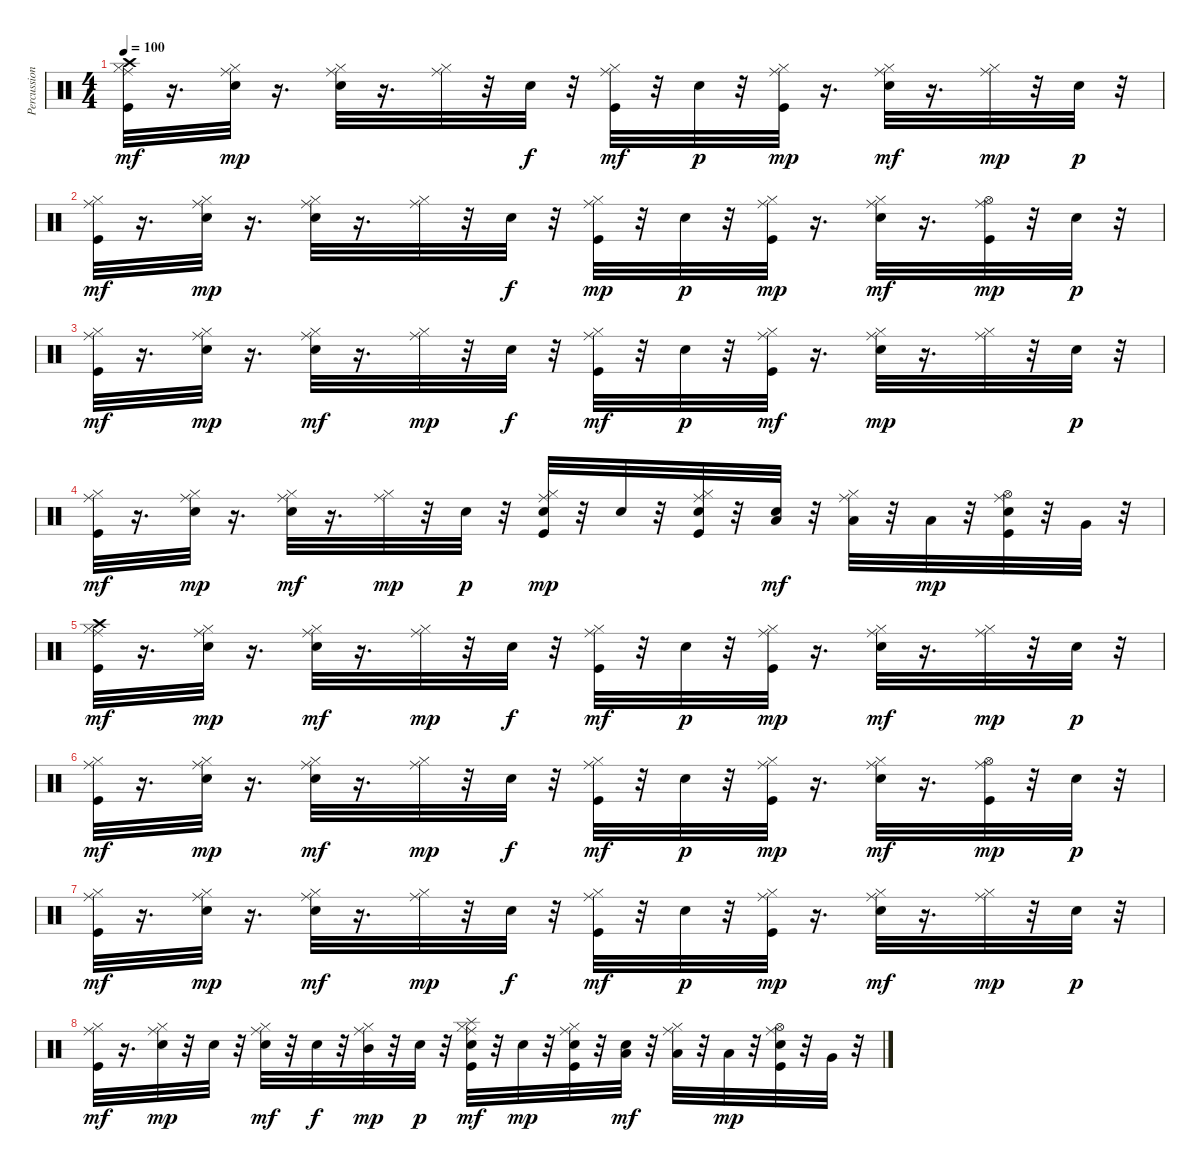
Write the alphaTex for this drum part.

\track ("Percussions" "Percussion") {instrument percussion}
\staff {score}
\articulation defaults
\ts (4 4)
\tempo 100
\clef neutral
\ks c
("Kick (hit)" "Hi-Hat (closed)" "Crash high (hit)" "Ride (middle)").32{dy mf} r.16{d} ("Electric Snare (hit)" "Hi-Hat (closed)" "Ride (middle)").32{dy mp} r.16{d} ("Electric Snare (hit)" "Hi-Hat (closed)" "Ride (middle)").32 r.16{d} ("Hi-Hat (closed)" "Ride (middle)").32 r.32 "Electric Snare (hit)".32{dy f} r.32 ("Kick (hit)" "Hi-Hat (closed)" "Ride (middle)").32{dy mf} r.32 "Electric Snare (hit)".32{dy p} r.32 ("Kick (hit)" "Hi-Hat (closed)" "Ride (middle)").32{dy mp} r.16{d} ("Electric Snare (hit)" "Hi-Hat (closed)" "Ride (middle)").32{dy mf} r.16{d} ("Hi-Hat (closed)" "Ride (middle)").32{dy mp} r.32 "Electric Snare (hit)".32{dy p} r.32 |
("Kick (hit)" "Hi-Hat (closed)" "Ride (middle)").32{dy mf} r.16{d} ("Electric Snare (hit)" "Hi-Hat (closed)" "Ride (middle)").32{dy mp} r.16{d} ("Electric Snare (hit)" "Hi-Hat (closed)" "Ride (middle)").32 r.16{d} ("Hi-Hat (closed)" "Ride (middle)").32 r.32 "Electric Snare (hit)".32{dy f} r.32 ("Kick (hit)" "Hi-Hat (closed)" "Ride (middle)").32{dy mp} r.32 "Electric Snare (hit)".32{dy p} r.32 ("Kick (hit)" "Hi-Hat (closed)" "Ride (middle)").32{dy mp} r.16{d} ("Electric Snare (hit)" "Hi-Hat (closed)" "Ride (middle)").32{dy mf} r.16{d} ("Kick (hit)" "Hi-Hat (open)" "Ride (middle)").32{dy mp} r.32 "Electric Snare (hit)".32{dy p} r.32 |
("Kick (hit)" "Hi-Hat (closed)" "Ride (middle)").32{dy mf} r.16{d} ("Electric Snare (hit)" "Hi-Hat (closed)" "Ride (middle)").32{dy mp} r.16{d} ("Electric Snare (hit)" "Hi-Hat (closed)" "Ride (middle)").32{dy mf} r.16{d} ("Hi-Hat (closed)" "Ride (middle)").32{dy mp} r.32 "Electric Snare (hit)".32{dy f} r.32 ("Kick (hit)" "Hi-Hat (closed)" "Ride (middle)").32{dy mf} r.32 "Electric Snare (hit)".32{dy p} r.32 ("Kick (hit)" "Hi-Hat (closed)" "Ride (middle)").32{dy mf} r.16{d} ("Electric Snare (hit)" "Hi-Hat (closed)" "Ride (middle)").32{dy mp} r.16{d} ("Hi-Hat (closed)" "Ride (middle)").32 r.32 "Electric Snare (hit)".32{dy p} r.32 |
("Kick (hit)" "Hi-Hat (closed)" "Ride (middle)").32{dy mf} r.16{d} ("Electric Snare (hit)" "Hi-Hat (closed)" "Ride (middle)").32{dy mp} r.16{d} ("Electric Snare (hit)" "Hi-Hat (closed)" "Ride (middle)").32{dy mf} r.16{d} ("Hi-Hat (closed)" "Ride (middle)").32{dy mp} r.32 "Electric Snare (hit)".32{dy p} r.32 ("Kick (hit)" "Electric Snare (hit)" "Hi-Hat (closed)" "Ride (middle)").32{dy mp} r.32 "Electric Snare (hit)".32 r.32 ("Kick (hit)" "Electric Snare (hit)" "Hi-Hat (closed)" "Ride (middle)").32 r.32 ("Electric Snare (hit)" "Low Tom (hit)").32{dy mf} r.32 ("Hi-Hat (closed)" "Low Tom (hit)" "Ride (middle)").32 r.32 "Low Tom (hit)".32{dy mp} r.32 ("Kick (hit)" "Electric Snare (hit)" "Hi-Hat (open)" "Ride (middle)").32 r.32 "Very Low Tom (hit)".32 r.32 |
("Kick (hit)" "Hi-Hat (closed)" "Crash high (hit)" "Ride (middle)").32{dy mf} r.16{d} ("Electric Snare (hit)" "Hi-Hat (closed)" "Ride (middle)").32{dy mp} r.16{d} ("Electric Snare (hit)" "Hi-Hat (closed)" "Ride (middle)").32{dy mf} r.16{d} ("Hi-Hat (closed)" "Ride (middle)").32{dy mp} r.32 "Electric Snare (hit)".32{dy f} r.32 ("Kick (hit)" "Hi-Hat (closed)" "Ride (middle)").32{dy mf} r.32 "Electric Snare (hit)".32{dy p} r.32 ("Kick (hit)" "Hi-Hat (closed)" "Ride (middle)").32{dy mp} r.16{d} ("Electric Snare (hit)" "Hi-Hat (closed)" "Ride (middle)").32{dy mf} r.16{d} ("Hi-Hat (closed)" "Ride (middle)").32{dy mp} r.32 "Electric Snare (hit)".32{dy p} r.32 |
("Kick (hit)" "Hi-Hat (closed)" "Ride (middle)").32{dy mf} r.16{d} ("Electric Snare (hit)" "Hi-Hat (closed)" "Ride (middle)").32{dy mp} r.16{d} ("Electric Snare (hit)" "Hi-Hat (closed)" "Ride (middle)").32{dy mf} r.16{d} ("Hi-Hat (closed)" "Ride (middle)").32{dy mp} r.32 "Electric Snare (hit)".32{dy f} r.32 ("Kick (hit)" "Hi-Hat (closed)" "Ride (middle)").32{dy mf} r.32 "Electric Snare (hit)".32{dy p} r.32 ("Kick (hit)" "Hi-Hat (closed)" "Ride (middle)").32{dy mp} r.16{d} ("Electric Snare (hit)" "Hi-Hat (closed)" "Ride (middle)").32{dy mf} r.16{d} ("Kick (hit)" "Hi-Hat (open)" "Ride (middle)").32{dy mp} r.32 "Electric Snare (hit)".32{dy p} r.32 |
("Kick (hit)" "Hi-Hat (closed)" "Ride (middle)").32{dy mf} r.16{d} ("Electric Snare (hit)" "Hi-Hat (closed)" "Ride (middle)").32{dy mp} r.16{d} ("Electric Snare (hit)" "Hi-Hat (closed)" "Ride (middle)").32{dy mf} r.16{d} ("Hi-Hat (closed)" "Ride (middle)").32{dy mp} r.32 "Electric Snare (hit)".32{dy f} r.32 ("Kick (hit)" "Hi-Hat (closed)" "Ride (middle)").32{dy mf} r.32 "Electric Snare (hit)".32{dy p} r.32 ("Kick (hit)" "Hi-Hat (closed)" "Ride (middle)").32{dy mp} r.16{d} ("Electric Snare (hit)" "Hi-Hat (closed)" "Ride (middle)").32{dy mf} r.16{d} ("Hi-Hat (closed)" "Ride (middle)").32{dy mp} r.32 "Electric Snare (hit)".32{dy p} r.32 |
("Kick (hit)" "Hi-Hat (closed)" "Ride (middle)").32{dy mf} r.16{d} ("Electric Snare (hit)" "Hi-Hat (closed)" "Ride (middle)").32{dy mp} r.32 "Electric Snare (hit)".32 r.32 ("Electric Snare (hit)" "Hi-Hat (closed)" "Ride (middle)").32{dy mf} r.32 "Electric Snare (hit)".32{dy f} r.32 ("Hi-Hat (closed)" "Mid Tom (hit)" "Ride (middle)").32{dy mp} r.32 "Electric Snare (hit)".32{dy p} r.32 ("Kick (hit)" "Electric Snare (hit)" "Hi-Hat (closed)" "Ride (middle)" "Splash (hit)").32{dy mf} r.32 "Electric Snare (hit)".32{dy mp} r.32 ("Kick (hit)" "Electric Snare (hit)" "Hi-Hat (closed)" "Ride (middle)").32 r.32 ("Electric Snare (hit)" "Low Tom (hit)").32{dy mf} r.32 ("Hi-Hat (closed)" "Low Tom (hit)" "Ride (middle)").32 r.32 "Low Tom (hit)".32{dy mp} r.32 ("Kick (hit)" "Electric Snare (hit)" "Hi-Hat (open)" "Ride (middle)").32 r.32 "Very Low Tom (hit)".32 r.32
